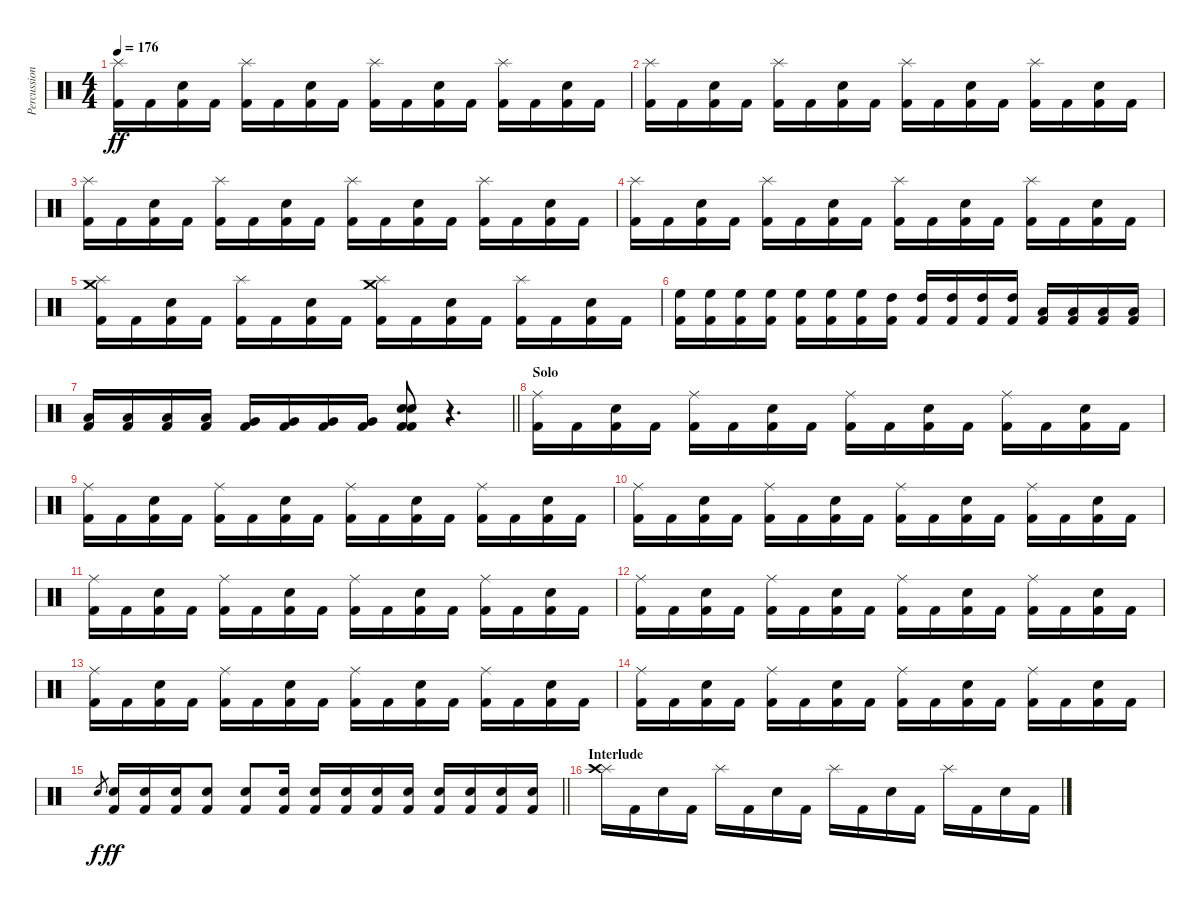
\track ("Percussion" "Percussion") {instrument percussion}
\staff {score}
\articulation defaults
\ts (4 4)
\tempo 176
\clef neutral
\ks c
("Kick (hit) 2" "Splash (hit)").16{dy ff} "Kick (hit) 2".16 ("Kick (hit) 2" "Electric Snare (hit)").16 "Kick (hit) 2".16 ("Kick (hit) 2" "Splash (hit)").16 "Kick (hit) 2".16 ("Kick (hit) 2" "Electric Snare (hit)").16 "Kick (hit) 2".16 ("Kick (hit) 2" "Splash (hit)").16 "Kick (hit) 2".16 ("Kick (hit) 2" "Electric Snare (hit)").16 "Kick (hit) 2".16 ("Kick (hit) 2" "Splash (hit)").16 "Kick (hit) 2".16 ("Kick (hit) 2" "Electric Snare (hit)").16 "Kick (hit) 2".16 |
("Kick (hit) 2" "Splash (hit)").16 "Kick (hit) 2".16 ("Kick (hit) 2" "Electric Snare (hit)").16 "Kick (hit) 2".16 ("Kick (hit) 2" "Splash (hit)").16 "Kick (hit) 2".16 ("Kick (hit) 2" "Electric Snare (hit)").16 "Kick (hit) 2".16 ("Kick (hit) 2" "Splash (hit)").16 "Kick (hit) 2".16 ("Kick (hit) 2" "Electric Snare (hit)").16 "Kick (hit) 2".16 ("Kick (hit) 2" "Splash (hit)").16 "Kick (hit) 2".16 ("Kick (hit) 2" "Electric Snare (hit)").16 "Kick (hit) 2".16 |
("Kick (hit) 2" "Splash (hit)").16 "Kick (hit) 2".16 ("Kick (hit) 2" "Electric Snare (hit)").16 "Kick (hit) 2".16 ("Kick (hit) 2" "Splash (hit)").16 "Kick (hit) 2".16 ("Kick (hit) 2" "Electric Snare (hit)").16 "Kick (hit) 2".16 ("Kick (hit) 2" "Splash (hit)").16 "Kick (hit) 2".16 ("Kick (hit) 2" "Electric Snare (hit)").16 "Kick (hit) 2".16 ("Kick (hit) 2" "Splash (hit)").16 "Kick (hit) 2".16 ("Kick (hit) 2" "Electric Snare (hit)").16 "Kick (hit) 2".16 |
("Kick (hit) 2" "Splash (hit)").16 "Kick (hit) 2".16 ("Kick (hit) 2" "Electric Snare (hit)").16 "Kick (hit) 2".16 ("Kick (hit) 2" "Splash (hit)").16 "Kick (hit) 2".16 ("Kick (hit) 2" "Electric Snare (hit)").16 "Kick (hit) 2".16 ("Kick (hit) 2" "Splash (hit)").16 "Kick (hit) 2".16 ("Kick (hit) 2" "Electric Snare (hit)").16 "Kick (hit) 2".16 ("Kick (hit) 2" "Splash (hit)").16 "Kick (hit) 2".16 ("Kick (hit) 2" "Electric Snare (hit)").16 "Kick (hit) 2".16 |
("Kick (hit) 2" "Splash (hit)" "Crash medium (hit)").16 "Kick (hit) 2".16 ("Kick (hit) 2" "Electric Snare (hit)").16 "Kick (hit) 2".16 ("Kick (hit) 2" "Splash (hit)").16 "Kick (hit) 2".16 ("Kick (hit) 2" "Electric Snare (hit)").16 "Kick (hit) 2".16 ("Kick (hit) 2" "Splash (hit)" "Crash medium (hit)").16 "Kick (hit) 2".16 ("Kick (hit) 2" "Electric Snare (hit)").16 "Kick (hit) 2".16 ("Kick (hit) 2" "Splash (hit)").16 "Kick (hit) 2".16 ("Kick (hit) 2" "Electric Snare (hit)").16 "Kick (hit) 2".16 |
("Kick (hit) 2" "High Floor Tom (hit)").16 ("Kick (hit) 2" "High Floor Tom (hit)").16 ("Kick (hit) 2" "High Floor Tom (hit)").16 ("Kick (hit) 2" "High Floor Tom (hit)").16 ("Kick (hit) 2" "High Floor Tom (hit)").16 ("Kick (hit) 2" "High Floor Tom (hit)").16 ("Kick (hit) 2" "High Floor Tom (hit)").16 ("Kick (hit) 2" "High Tom (hit)").16 ("Kick (hit) 2" "High Tom (hit)").16 ("Kick (hit) 2" "High Tom (hit)").16 ("Kick (hit) 2" "High Tom (hit)").16 ("Kick (hit) 2" "High Tom (hit)").16 ("Kick (hit) 2" "Low Tom (hit)").16 ("Kick (hit) 2" "Low Tom (hit)").16 ("Kick (hit) 2" "Low Tom (hit)").16 ("Kick (hit) 2" "Low Tom (hit)").16 |
\barLineRight lightlight
("Kick (hit) 2" "Low Tom (hit)").16 ("Kick (hit) 2" "Low Tom (hit)").16 ("Kick (hit) 2" "Low Tom (hit)").16 ("Kick (hit) 2" "Low Tom (hit)").16 ("Kick (hit) 2" "Very Low Tom (hit)").16 ("Kick (hit) 2" "Very Low Tom (hit)").16 ("Kick (hit) 2" "Very Low Tom (hit)").16 ("Kick (hit) 2" "Very Low Tom (hit)").16 ("Kick (hit) 2" "Electric Snare (hit)" "Electric Snare (hit)" "Kick (hit) 2").8 r.4{d} |
\section ("" "Solo")
("Kick (hit) 2" "Ride (middle)").16 "Kick (hit) 2".16 ("Kick (hit) 2" "Electric Snare (hit)").16 "Kick (hit) 2".16 ("Kick (hit) 2" "Ride (middle)").16 "Kick (hit) 2".16 ("Kick (hit) 2" "Electric Snare (hit)").16 "Kick (hit) 2".16 ("Kick (hit) 2" "Ride (middle)").16 "Kick (hit) 2".16 ("Kick (hit) 2" "Electric Snare (hit)").16 "Kick (hit) 2".16 ("Kick (hit) 2" "Ride (middle)").16 "Kick (hit) 2".16 ("Kick (hit) 2" "Electric Snare (hit)").16 "Kick (hit) 2".16 |
("Kick (hit) 2" "Ride (middle)").16 "Kick (hit) 2".16 ("Kick (hit) 2" "Electric Snare (hit)").16 "Kick (hit) 2".16 ("Kick (hit) 2" "Ride (middle)").16 "Kick (hit) 2".16 ("Kick (hit) 2" "Electric Snare (hit)").16 "Kick (hit) 2".16 ("Kick (hit) 2" "Ride (middle)").16 "Kick (hit) 2".16 ("Kick (hit) 2" "Electric Snare (hit)").16 "Kick (hit) 2".16 ("Kick (hit) 2" "Ride (middle)").16 "Kick (hit) 2".16 ("Kick (hit) 2" "Electric Snare (hit)").16 "Kick (hit) 2".16 |
("Kick (hit) 2" "Ride (middle)").16 "Kick (hit) 2".16 ("Kick (hit) 2" "Electric Snare (hit)").16 "Kick (hit) 2".16 ("Kick (hit) 2" "Ride (middle)").16 "Kick (hit) 2".16 ("Kick (hit) 2" "Electric Snare (hit)").16 "Kick (hit) 2".16 ("Kick (hit) 2" "Ride (middle)").16 "Kick (hit) 2".16 ("Kick (hit) 2" "Electric Snare (hit)").16 "Kick (hit) 2".16 ("Kick (hit) 2" "Ride (middle)").16 "Kick (hit) 2".16 ("Kick (hit) 2" "Electric Snare (hit)").16 "Kick (hit) 2".16 |
("Kick (hit) 2" "Ride (middle)").16 "Kick (hit) 2".16 ("Kick (hit) 2" "Electric Snare (hit)").16 "Kick (hit) 2".16 ("Kick (hit) 2" "Ride (middle)").16 "Kick (hit) 2".16 ("Kick (hit) 2" "Electric Snare (hit)").16 "Kick (hit) 2".16 ("Kick (hit) 2" "Ride (middle)").16 "Kick (hit) 2".16 ("Kick (hit) 2" "Electric Snare (hit)").16 "Kick (hit) 2".16 ("Kick (hit) 2" "Ride (middle)").16 "Kick (hit) 2".16 ("Kick (hit) 2" "Electric Snare (hit)").16 "Kick (hit) 2".16 |
("Kick (hit) 2" "Ride (middle)").16 "Kick (hit) 2".16 ("Kick (hit) 2" "Electric Snare (hit)").16 "Kick (hit) 2".16 ("Kick (hit) 2" "Ride (middle)").16 "Kick (hit) 2".16 ("Kick (hit) 2" "Electric Snare (hit)").16 "Kick (hit) 2".16 ("Kick (hit) 2" "Ride (middle)").16 "Kick (hit) 2".16 ("Kick (hit) 2" "Electric Snare (hit)").16 "Kick (hit) 2".16 ("Kick (hit) 2" "Ride (middle)").16 "Kick (hit) 2".16 ("Kick (hit) 2" "Electric Snare (hit)").16 "Kick (hit) 2".16 |
("Kick (hit) 2" "Ride (middle)").16 "Kick (hit) 2".16 ("Kick (hit) 2" "Electric Snare (hit)").16 "Kick (hit) 2".16 ("Kick (hit) 2" "Ride (middle)").16 "Kick (hit) 2".16 ("Kick (hit) 2" "Electric Snare (hit)").16 "Kick (hit) 2".16 ("Kick (hit) 2" "Ride (middle)").16 "Kick (hit) 2".16 ("Kick (hit) 2" "Electric Snare (hit)").16 "Kick (hit) 2".16 ("Kick (hit) 2" "Ride (middle)").16 "Kick (hit) 2".16 ("Kick (hit) 2" "Electric Snare (hit)").16 "Kick (hit) 2".16 |
("Kick (hit) 2" "Ride (middle)").16 "Kick (hit) 2".16 ("Kick (hit) 2" "Electric Snare (hit)").16 "Kick (hit) 2".16 ("Kick (hit) 2" "Ride (middle)").16 "Kick (hit) 2".16 ("Kick (hit) 2" "Electric Snare (hit)").16 "Kick (hit) 2".16 ("Kick (hit) 2" "Ride (middle)").16 "Kick (hit) 2".16 ("Kick (hit) 2" "Electric Snare (hit)").16 "Kick (hit) 2".16 ("Kick (hit) 2" "Ride (middle)").16 "Kick (hit) 2".16 ("Kick (hit) 2" "Electric Snare (hit)").16 "Kick (hit) 2".16 |
\barLineRight lightlight "Electric Snare (hit)".8{gr dy f}
("Kick (hit) 2" "Electric Snare (hit)").16{dy ff} ("Kick (hit) 2" "Electric Snare (hit)").16 ("Kick (hit) 2" "Electric Snare (hit)").16 ("Kick (hit) 2" "Electric Snare (hit)").8 ("Kick (hit) 2" "Electric Snare (hit)").8 ("Kick (hit) 2" "Electric Snare (hit)").16 ("Kick (hit) 2" "Electric Snare (hit)").16 ("Kick (hit) 2" "Electric Snare (hit)").16 ("Kick (hit) 2" "Electric Snare (hit)").16 ("Kick (hit) 2" "Electric Snare (hit)").16 ("Kick (hit) 2" "Electric Snare (hit)").16 ("Kick (hit) 2" "Electric Snare (hit)").16 ("Kick (hit) 2" "Electric Snare (hit)").16 ("Kick (hit) 2" "Electric Snare (hit)").16 |
\section ("" "Interlude")
("Splash (hit)" "Crash high (hit)").16 "Kick (hit) 2".16 "Electric Snare (hit)".16 "Kick (hit) 2".16 "Splash (hit)".16 "Kick (hit) 2".16 "Electric Snare (hit)".16 "Kick (hit) 2".16 "Splash (hit)".16 "Kick (hit) 2".16 "Electric Snare (hit)".16 "Kick (hit) 2".16 "Splash (hit)".16 "Kick (hit) 2".16 "Electric Snare (hit)".16 "Kick (hit) 2".16
